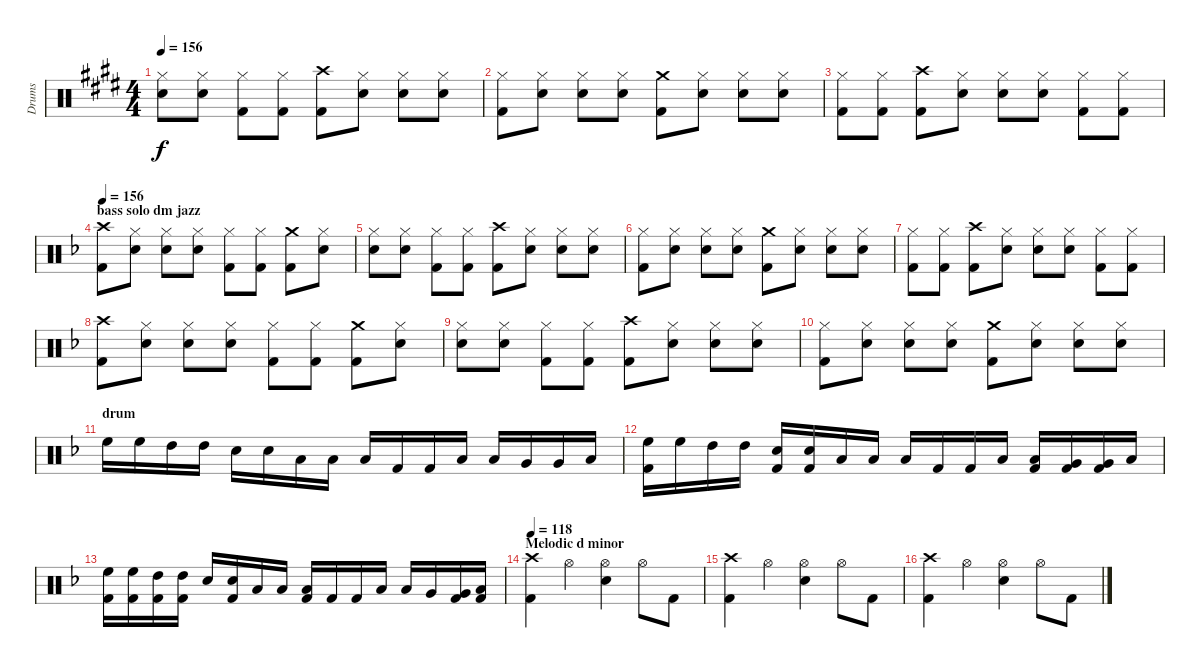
\track ("Drums" "Drums") {instrument percussion}
\staff {score}
\articulation defaults
\ts (4 4)
\tempo 156
\clef neutral
\ks c#minor
("Hi-Hat (closed)" "Electric Snare (hit)").8{dy f} ("Hi-Hat (closed)" "Electric Snare (hit)").8 ("Hi-Hat (closed)" "Kick (hit) 2").8 ("Hi-Hat (closed)" "Kick (hit) 2").8 ("Crash high (hit)" "Kick (hit) 2").8 ("Hi-Hat (closed)" "Electric Snare (hit)").8 ("Hi-Hat (closed)" "Electric Snare (hit)").8 ("Hi-Hat (closed)" "Electric Snare (hit)").8 |
("Hi-Hat (closed)" "Kick (hit) 2").8 ("Hi-Hat (closed)" "Electric Snare (hit)").8 ("Hi-Hat (closed)" "Electric Snare (hit)").8 ("Hi-Hat (closed)" "Electric Snare (hit)").8 ("Crash medium (hit)" "Kick (hit) 2").8 ("Hi-Hat (closed)" "Electric Snare (hit)").8 ("Hi-Hat (closed)" "Electric Snare (hit)").8 ("Hi-Hat (closed)" "Electric Snare (hit)").8 |
("Hi-Hat (closed)" "Kick (hit) 2").8 ("Hi-Hat (closed)" "Kick (hit) 2").8 ("Crash high (hit)" "Kick (hit) 2").8 ("Hi-Hat (closed)" "Electric Snare (hit)").8 ("Hi-Hat (closed)" "Electric Snare (hit)").8 ("Hi-Hat (closed)" "Electric Snare (hit)").8 ("Hi-Hat (closed)" "Kick (hit) 2").8 ("Hi-Hat (closed)" "Kick (hit) 2").8 |
\section ("" "bass solo dm jazz")
\tempo 156
\ks dminor
("Crash high (hit)" "Kick (hit) 2").8 ("Hi-Hat (closed)" "Electric Snare (hit)").8 ("Hi-Hat (closed)" "Electric Snare (hit)").8 ("Hi-Hat (closed)" "Electric Snare (hit)").8 ("Hi-Hat (closed)" "Kick (hit) 2").8 ("Hi-Hat (closed)" "Kick (hit) 2").8 ("Crash medium (hit)" "Kick (hit) 2").8 ("Hi-Hat (closed)" "Electric Snare (hit)").8 |
("Hi-Hat (closed)" "Electric Snare (hit)").8 ("Hi-Hat (closed)" "Electric Snare (hit)").8 ("Hi-Hat (closed)" "Kick (hit) 2").8 ("Hi-Hat (closed)" "Kick (hit) 2").8 ("Crash high (hit)" "Kick (hit) 2").8 ("Hi-Hat (closed)" "Electric Snare (hit)").8 ("Hi-Hat (closed)" "Electric Snare (hit)").8 ("Hi-Hat (closed)" "Electric Snare (hit)").8 |
("Hi-Hat (closed)" "Kick (hit) 2").8 ("Hi-Hat (closed)" "Electric Snare (hit)").8 ("Hi-Hat (closed)" "Electric Snare (hit)").8 ("Hi-Hat (closed)" "Electric Snare (hit)").8 ("Crash medium (hit)" "Kick (hit) 2").8 ("Hi-Hat (closed)" "Electric Snare (hit)").8 ("Hi-Hat (closed)" "Electric Snare (hit)").8 ("Hi-Hat (closed)" "Electric Snare (hit)").8 |
("Hi-Hat (closed)" "Kick (hit) 2").8 ("Hi-Hat (closed)" "Kick (hit) 2").8 ("Crash high (hit)" "Kick (hit) 2").8 ("Hi-Hat (closed)" "Electric Snare (hit)").8 ("Hi-Hat (closed)" "Electric Snare (hit)").8 ("Hi-Hat (closed)" "Electric Snare (hit)").8 ("Hi-Hat (closed)" "Kick (hit) 2").8 ("Hi-Hat (closed)" "Kick (hit) 2").8 |
("Crash high (hit)" "Kick (hit) 2").8 ("Hi-Hat (closed)" "Electric Snare (hit)").8 ("Hi-Hat (closed)" "Electric Snare (hit)").8 ("Hi-Hat (closed)" "Electric Snare (hit)").8 ("Hi-Hat (closed)" "Kick (hit) 2").8 ("Hi-Hat (closed)" "Kick (hit) 2").8 ("Crash medium (hit)" "Kick (hit) 2").8 ("Hi-Hat (closed)" "Electric Snare (hit)").8 |
("Hi-Hat (closed)" "Electric Snare (hit)").8 ("Hi-Hat (closed)" "Electric Snare (hit)").8 ("Hi-Hat (closed)" "Kick (hit) 2").8 ("Hi-Hat (closed)" "Kick (hit) 2").8 ("Crash high (hit)" "Kick (hit) 2").8 ("Hi-Hat (closed)" "Electric Snare (hit)").8 ("Hi-Hat (closed)" "Electric Snare (hit)").8 ("Hi-Hat (closed)" "Electric Snare (hit)").8 |
("Hi-Hat (closed)" "Kick (hit) 2").8 ("Hi-Hat (closed)" "Electric Snare (hit)").8 ("Hi-Hat (closed)" "Electric Snare (hit)").8 ("Hi-Hat (closed)" "Electric Snare (hit)").8 ("Crash medium (hit)" "Kick (hit) 2").8 ("Hi-Hat (closed)" "Electric Snare (hit)").8 ("Hi-Hat (closed)" "Electric Snare (hit)").8 ("Hi-Hat (closed)" "Electric Snare (hit)").8 |
\section ("" "drum")
"High Floor Tom (hit)".16 "High Floor Tom (hit)".16 "High Tom (hit)".16 "High Tom (hit)".16 "Electric Snare (hit)".16 "Electric Snare (hit)".16 "Low Floor Tom (hit)".16 "Low Floor Tom (hit)".16 "Low Floor Tom (hit)".16 "Kick (hit) 2".16 "Kick (hit) 2".16 "Low Floor Tom (hit)".16 "Low Floor Tom (hit)".16 "Very Low Tom (hit)".16 "Very Low Tom (hit)".16 "Low Tom (hit)".16 |
("High Floor Tom (hit)" "Kick (hit) 2").16 "High Floor Tom (hit)".16 "High Tom (hit)".16 "High Tom (hit)".16 ("Electric Snare (hit)" "Kick (hit) 2").16 ("Electric Snare (hit)" "Kick (hit) 2").16 "Low Floor Tom (hit)".16 "Low Floor Tom (hit)".16 "Low Floor Tom (hit)".16 "Kick (hit) 2".16 "Kick (hit) 2".16 "Low Floor Tom (hit)".16 ("Low Floor Tom (hit)" "Kick (hit) 2").16 ("Very Low Tom (hit)" "Kick (hit) 2").16 ("Very Low Tom (hit)" "Kick (hit) 2").16 "Low Tom (hit)".16 |
("High Floor Tom (hit)" "Kick (hit) 2").16 ("High Floor Tom (hit)" "Kick (hit) 2").16 ("High Tom (hit)" "Kick (hit) 2").16 ("High Tom (hit)" "Kick (hit) 2").16 "Electric Snare (hit)".16 ("Electric Snare (hit)" "Kick (hit) 2").16 "Low Floor Tom (hit)".16 "Low Floor Tom (hit)".16 ("Low Floor Tom (hit)" "Kick (hit) 2").16 "Kick (hit) 2".16 "Kick (hit) 2".16 "Low Floor Tom (hit)".16 "Low Floor Tom (hit)".16 "Very Low Tom (hit)".16 ("Very Low Tom (hit)" "Kick (hit) 2").16 ("Low Tom (hit)" "Kick (hit) 2").16 |
\section ("" "Melodic d minor")
\tempo 118
("Crash high (hit)" "Kick (hit) 2").4 "Hi-Hat (open)".4 ("Hi-Hat (open)" "Electric Snare (hit)").4 "Hi-Hat (open)".8 "Kick (hit) 2".8 |
("Crash high (hit)" "Kick (hit) 2").4 "Hi-Hat (open)".4 ("Hi-Hat (open)" "Electric Snare (hit)").4 "Hi-Hat (open)".8 "Kick (hit) 2".8 |
("Crash high (hit)" "Kick (hit) 2").4 "Hi-Hat (open)".4 ("Hi-Hat (open)" "Electric Snare (hit)").4 "Hi-Hat (open)".8 "Kick (hit) 2".8
